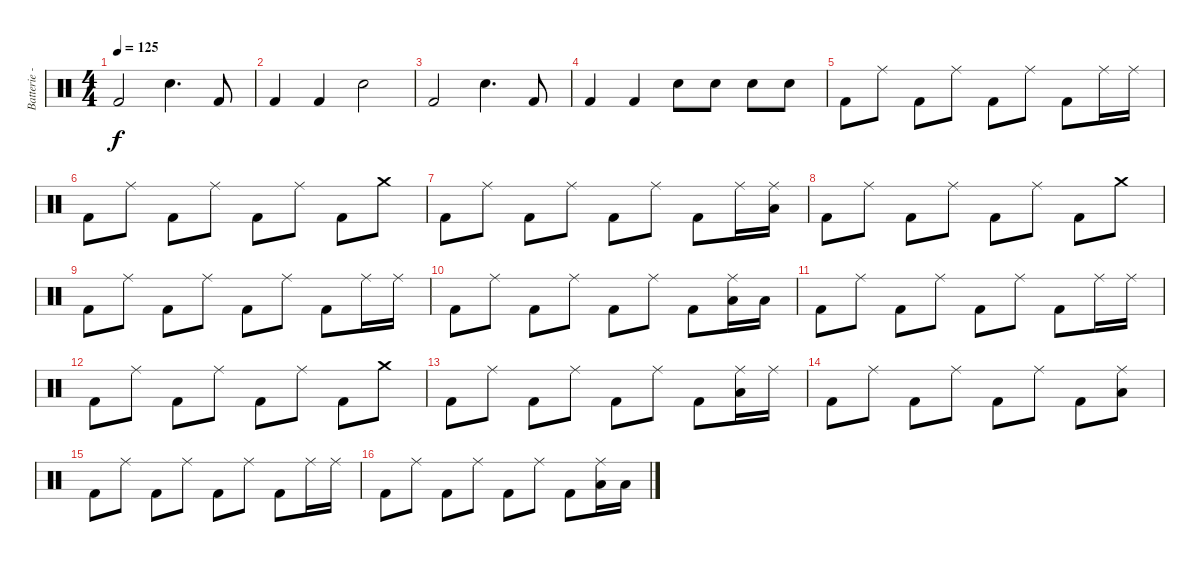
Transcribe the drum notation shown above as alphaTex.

\track ("Batterie - Shane Gaalaas" "Batterie -") {instrument percussion}
\staff {score}
\articulation defaults
\ts (4 4)
\tempo 125
\clef neutral
\ks c "Kick (hit) 2".2{dy f} "Electric Snare (hit)".4{d} "Kick (hit) 2".8
|
"Kick (hit) 2".4 "Kick (hit) 2".4 "Electric Snare (hit)".2 |
"Kick (hit) 2".2 "Electric Snare (hit)".4{d} "Kick (hit) 2".8 |
"Kick (hit) 2".4 "Kick (hit) 2".4 "Electric Snare (hit)".8 "Electric Snare (hit)".8 "Electric Snare (hit)".8 "Electric Snare (hit)".8 |
"Kick (hit) 2".8 "Ride (middle)".8 "Kick (hit) 2".8 "Ride (middle)".8 "Kick (hit) 2".8 "Ride (middle)".8 "Kick (hit) 2".8 "Ride (middle)".16 "Ride (middle)".16 |
"Kick (hit) 2".8 "Ride (middle)".8 "Kick (hit) 2".8 "Ride (middle)".8 "Kick (hit) 2".8 "Ride (middle)".8 "Kick (hit) 2".8 "Crash medium (hit)".8 |
"Kick (hit) 2".8 "Ride (middle)".8 "Kick (hit) 2".8 "Ride (middle)".8 "Kick (hit) 2".8 "Ride (middle)".8 "Kick (hit) 2".8 "Ride (middle)".16 ("Ride (middle)" "Low Tom (hit)").16 |
"Kick (hit) 2".8 "Ride (middle)".8 "Kick (hit) 2".8 "Ride (middle)".8 "Kick (hit) 2".8 "Ride (middle)".8 "Kick (hit) 2".8 "Crash medium (hit)".8 |
"Kick (hit) 2".8 "Ride (middle)".8 "Kick (hit) 2".8 "Ride (middle)".8 "Kick (hit) 2".8 "Ride (middle)".8 "Kick (hit) 2".8 "Ride (middle)".16 "Ride (middle)".16 |
"Kick (hit) 2".8 "Ride (middle)".8 "Kick (hit) 2".8 "Ride (middle)".8 "Kick (hit) 2".8 "Ride (middle)".8 "Kick (hit) 2".8 ("Ride (middle)" "Low Tom (hit)").16 "Low Tom (hit)".16 |
"Kick (hit) 2".8 "Ride (middle)".8 "Kick (hit) 2".8 "Ride (middle)".8 "Kick (hit) 2".8 "Ride (middle)".8 "Kick (hit) 2".8 "Ride (middle)".16 "Ride (middle)".16 |
"Kick (hit) 2".8 "Ride (middle)".8 "Kick (hit) 2".8 "Ride (middle)".8 "Kick (hit) 2".8 "Ride (middle)".8 "Kick (hit) 2".8 "Crash medium (hit)".8 |
"Kick (hit) 2".8 "Ride (middle)".8 "Kick (hit) 2".8 "Ride (middle)".8 "Kick (hit) 2".8 "Ride (middle)".8 "Kick (hit) 2".8 ("Ride (middle)" "Low Tom (hit)").16 "Ride (middle)".16 |
"Kick (hit) 2".8 "Ride (middle)".8 "Kick (hit) 2".8 "Ride (middle)".8 "Kick (hit) 2".8 "Ride (middle)".8 "Kick (hit) 2".8 ("Ride (middle)" "Low Tom (hit)").8 |
"Kick (hit) 2".8 "Ride (middle)".8 "Kick (hit) 2".8 "Ride (middle)".8 "Kick (hit) 2".8 "Ride (middle)".8 "Kick (hit) 2".8 "Ride (middle)".16 "Ride (middle)".16 |
"Kick (hit) 2".8 "Ride (middle)".8 "Kick (hit) 2".8 "Ride (middle)".8 "Kick (hit) 2".8 "Ride (middle)".8 "Kick (hit) 2".8 ("Ride (middle)" "Low Tom (hit)").16 "Low Tom (hit)".16
